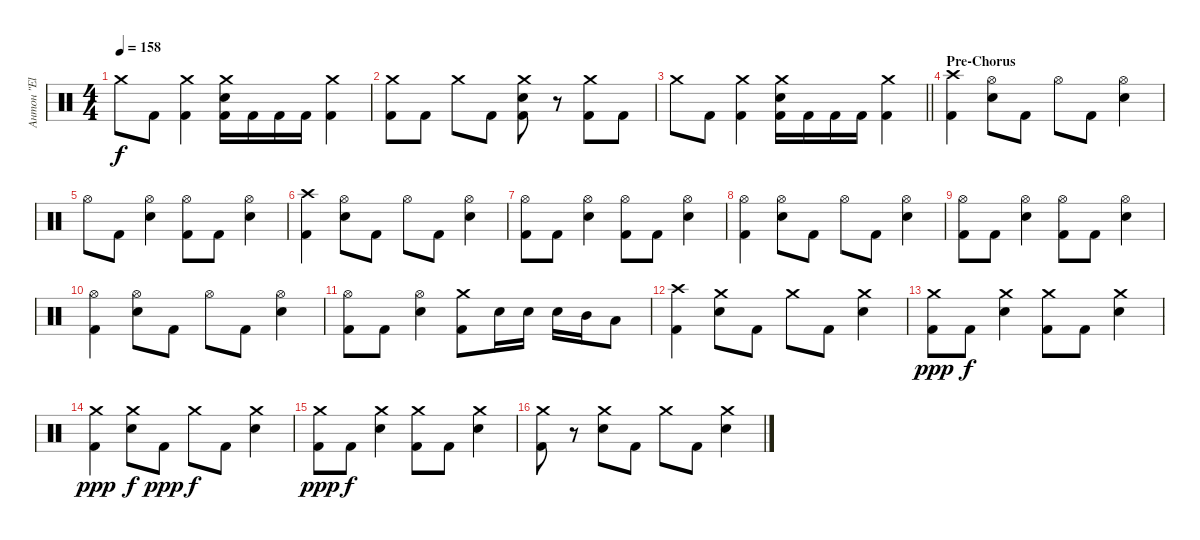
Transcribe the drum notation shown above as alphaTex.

\track ("Антон \"El Bastardo\" Смольянин" "Антон \"El ") {instrument percussion}
\staff {score}
\articulation defaults
\ts (4 4)
\tempo 158
\clef neutral
\ks c "Crash medium (hit)".8{dy f} "Kick (hit) 2".8
("Crash medium (hit)" "Kick (hit) 2").4 ("Crash medium (hit)" "Electric Snare (hit)" "Kick (hit) 2").16 "Kick (hit) 2".16 "Kick (hit) 2".16 "Kick (hit) 2".16 ("Crash medium (hit)" "Kick (hit) 2").4 |
("Crash medium (hit)" "Kick (hit) 2").8 "Kick (hit) 2".8 "Crash medium (hit)".8 "Kick (hit) 2".8 ("Crash medium (hit)" "Electric Snare (hit)" "Kick (hit) 2").8 r.8 ("Crash medium (hit)" "Kick (hit) 2").8 "Kick (hit) 2".8 |
\barLineRight lightlight "Crash medium (hit)".8 "Kick (hit) 2".8
("Crash medium (hit)" "Kick (hit) 2").4 ("Crash medium (hit)" "Electric Snare (hit)" "Kick (hit) 2").16 "Kick (hit) 2".16 "Kick (hit) 2".16 "Kick (hit) 2".16 ("Crash medium (hit)" "Kick (hit) 2").4 |
\section ("" "Pre-Chorus")
("Crash high (hit)" "Kick (hit) 2").4 ("Hi-Hat (open)" "Electric Snare (hit)").8 "Kick (hit) 2".8 "Hi-Hat (open)".8 "Kick (hit) 2".8 ("Hi-Hat (open)" "Electric Snare (hit)").4 |
"Hi-Hat (open)".8 "Kick (hit) 2".8 ("Hi-Hat (open)" "Electric Snare (hit)").4 ("Hi-Hat (open)" "Kick (hit) 2").8 "Kick (hit) 2".8 ("Hi-Hat (open)" "Electric Snare (hit)").4 |
("Crash high (hit)" "Kick (hit) 2").4 ("Hi-Hat (open)" "Electric Snare (hit)").8 "Kick (hit) 2".8 "Hi-Hat (open)".8 "Kick (hit) 2".8 ("Hi-Hat (open)" "Electric Snare (hit)").4 |
("Hi-Hat (open)" "Kick (hit) 2").8 "Kick (hit) 2".8 ("Hi-Hat (open)" "Electric Snare (hit)").4 ("Hi-Hat (open)" "Kick (hit) 2").8 "Kick (hit) 2".8 ("Hi-Hat (open)" "Electric Snare (hit)").4 |
("Hi-Hat (open)" "Kick (hit) 2").4 ("Hi-Hat (open)" "Electric Snare (hit)").8 "Kick (hit) 2".8 "Hi-Hat (open)".8 "Kick (hit) 2".8 ("Hi-Hat (open)" "Electric Snare (hit)").4 |
("Hi-Hat (open)" "Kick (hit) 2").8 "Kick (hit) 2".8 ("Hi-Hat (open)" "Electric Snare (hit)").4 ("Hi-Hat (open)" "Kick (hit) 2").8 "Kick (hit) 2".8 ("Hi-Hat (open)" "Electric Snare (hit)").4 |
("Hi-Hat (open)" "Kick (hit) 2").4 ("Hi-Hat (open)" "Electric Snare (hit)").8 "Kick (hit) 2".8 "Hi-Hat (open)".8 "Kick (hit) 2".8 ("Hi-Hat (open)" "Electric Snare (hit)").4 |
("Hi-Hat (open)" "Kick (hit) 2").8 "Kick (hit) 2".8 ("Hi-Hat (open)" "Electric Snare (hit)").4 ("Crash medium (hit)" "Kick (hit) 2").8 "Electric Snare (hit)".16 "Electric Snare (hit)".16 "Electric Snare (hit)".16 "Mid Tom (hit)".16 "Low Tom (hit)".8 |
("Crash high (hit)" "Kick (hit) 2").4 ("Crash medium (hit)" "Electric Snare (hit)").8 "Kick (hit) 2".8 "Crash medium (hit)".8 "Kick (hit) 2".8 ("Crash medium (hit)" "Electric Snare (hit)").4 |
("Crash medium (hit)" "Kick (hit) 2").8{dy ppp} "Kick (hit) 2".8{dy f} ("Crash medium (hit)" "Electric Snare (hit)").4 ("Crash medium (hit)" "Kick (hit) 2").8 "Kick (hit) 2".8 ("Crash medium (hit)" "Electric Snare (hit)").4 |
("Crash medium (hit)" "Kick (hit) 2").4{dy ppp} ("Crash medium (hit)" "Electric Snare (hit)").8{dy f} "Kick (hit) 2".8{dy ppp} "Crash medium (hit)".8{dy f} "Kick (hit) 2".8 ("Crash medium (hit)" "Electric Snare (hit)").4 |
("Crash medium (hit)" "Kick (hit) 2").8{dy ppp} "Kick (hit) 2".8{dy f} ("Crash medium (hit)" "Electric Snare (hit)").4 ("Crash medium (hit)" "Kick (hit) 2").8 "Kick (hit) 2".8 ("Crash medium (hit)" "Electric Snare (hit)").4 |
("Crash medium (hit)" "Kick (hit) 2").8 r.8 ("Crash medium (hit)" "Electric Snare (hit)").8 "Kick (hit) 2".8 "Crash medium (hit)".8 "Kick (hit) 2".8 ("Crash medium (hit)" "Electric Snare (hit)").4
